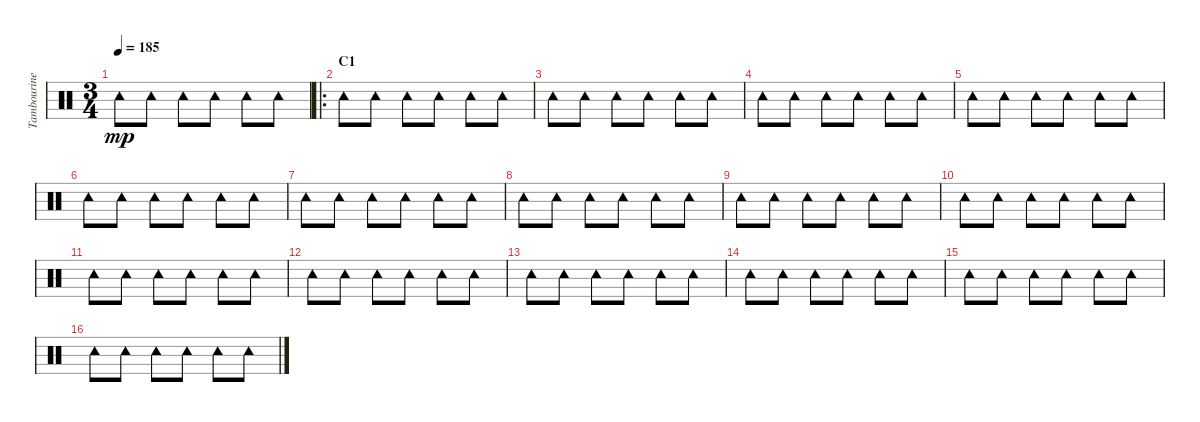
\track ("Tambourine" "Tambourine") {instrument percussion}
\staff {score}
\articulation defaults
\ts (3 4)
\tempo 185
\clef neutral
\ks c "Tambourine (hit)".8{dy mp} "Tambourine (hit)".8 "Tambourine (hit)".8 "Tambourine (hit)".8 "Tambourine (hit)".8 "Tambourine (hit)".8
|
\ro
\section ("" "C1")
"Tambourine (hit)".8 "Tambourine (hit)".8 "Tambourine (hit)".8 "Tambourine (hit)".8 "Tambourine (hit)".8 "Tambourine (hit)".8 |
"Tambourine (hit)".8 "Tambourine (hit)".8 "Tambourine (hit)".8 "Tambourine (hit)".8 "Tambourine (hit)".8 "Tambourine (hit)".8 |
"Tambourine (hit)".8 "Tambourine (hit)".8 "Tambourine (hit)".8 "Tambourine (hit)".8 "Tambourine (hit)".8 "Tambourine (hit)".8 |
"Tambourine (hit)".8 "Tambourine (hit)".8 "Tambourine (hit)".8 "Tambourine (hit)".8 "Tambourine (hit)".8 "Tambourine (hit)".8 |
"Tambourine (hit)".8 "Tambourine (hit)".8 "Tambourine (hit)".8 "Tambourine (hit)".8 "Tambourine (hit)".8 "Tambourine (hit)".8 |
"Tambourine (hit)".8 "Tambourine (hit)".8 "Tambourine (hit)".8 "Tambourine (hit)".8 "Tambourine (hit)".8 "Tambourine (hit)".8 |
"Tambourine (hit)".8 "Tambourine (hit)".8 "Tambourine (hit)".8 "Tambourine (hit)".8 "Tambourine (hit)".8 "Tambourine (hit)".8 |
"Tambourine (hit)".8 "Tambourine (hit)".8 "Tambourine (hit)".8 "Tambourine (hit)".8 "Tambourine (hit)".8 "Tambourine (hit)".8 |
"Tambourine (hit)".8 "Tambourine (hit)".8 "Tambourine (hit)".8 "Tambourine (hit)".8 "Tambourine (hit)".8 "Tambourine (hit)".8 |
"Tambourine (hit)".8 "Tambourine (hit)".8 "Tambourine (hit)".8 "Tambourine (hit)".8 "Tambourine (hit)".8 "Tambourine (hit)".8 |
"Tambourine (hit)".8 "Tambourine (hit)".8 "Tambourine (hit)".8 "Tambourine (hit)".8 "Tambourine (hit)".8 "Tambourine (hit)".8 |
"Tambourine (hit)".8 "Tambourine (hit)".8 "Tambourine (hit)".8 "Tambourine (hit)".8 "Tambourine (hit)".8 "Tambourine (hit)".8 |
"Tambourine (hit)".8 "Tambourine (hit)".8 "Tambourine (hit)".8 "Tambourine (hit)".8 "Tambourine (hit)".8 "Tambourine (hit)".8 |
"Tambourine (hit)".8 "Tambourine (hit)".8 "Tambourine (hit)".8 "Tambourine (hit)".8 "Tambourine (hit)".8 "Tambourine (hit)".8 |
"Tambourine (hit)".8 "Tambourine (hit)".8 "Tambourine (hit)".8 "Tambourine (hit)".8 "Tambourine (hit)".8 "Tambourine (hit)".8
